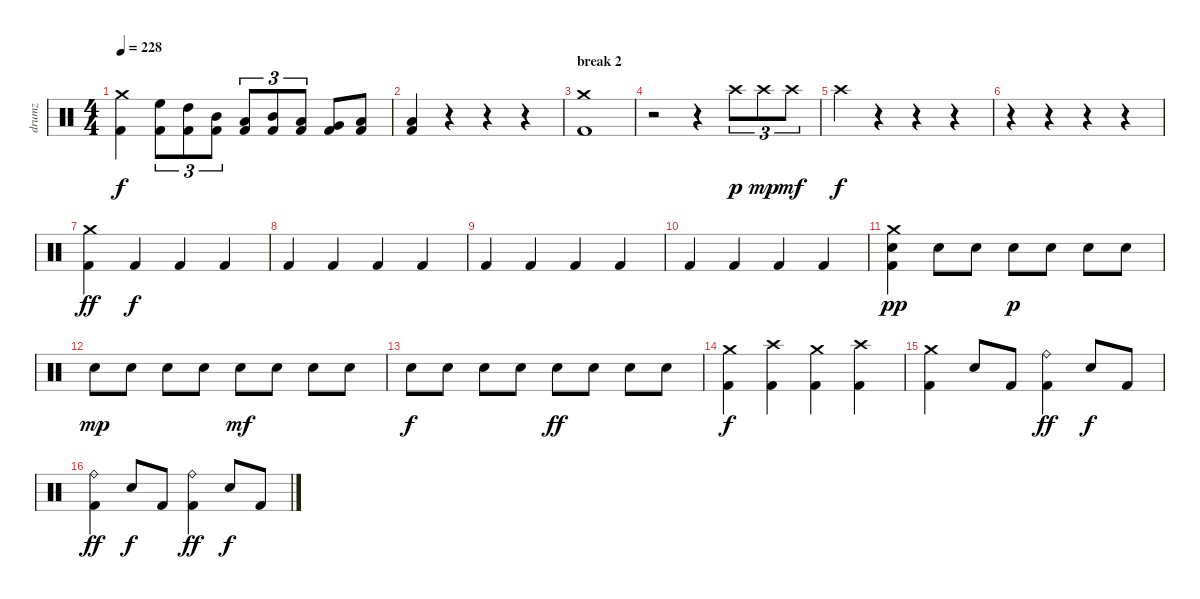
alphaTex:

\track ("drumz" "drumz") {instrument percussion}
\staff {score}
\articulation defaults
\ts (4 4)
\tempo 228
\clef neutral
\ks c
("Crash medium (hit)" "Kick (hit) 2").4{dy f} ("High Floor Tom (hit)" "Kick (hit) 2").8{tu (3 2)} ("High Tom (hit)" "Kick (hit) 2").8{tu (3 2)} ("Mid Tom (hit)" "Kick (hit) 2").8{tu (3 2)} ("Low Tom (hit)" "Kick (hit) 2").8{tu (3 2)} ("Mid Tom (hit)" "Kick (hit) 2").8{tu (3 2)} ("Low Tom (hit)" "Kick (hit) 2").8{tu (3 2)} ("Very Low Tom (hit)" "Kick (hit) 2").8 ("Low Floor Tom (hit)" "Kick (hit) 2").8 |
("Low Floor Tom (hit)" "Kick (hit) 2").4 r.4 r.4 r.4 |
\section ("" "break 2")
("Crash medium (hit)" "Kick (hit) 2").1 |
r.2 r.4 "Crash high (hit)".8{tu (3 2) dy p} "Crash high (hit)".8{tu (3 2) dy mp} "Crash high (hit)".8{tu (3 2) dy mf} |
"Crash high (hit)".4{dy f} r.4 r.4 r.4 |
r.4 r.4 r.4 r.4 |
("Crash medium (hit)" "Kick (hit) 2").4{dy ff} "Kick (hit) 2".4{dy f} "Kick (hit) 2".4 "Kick (hit) 2".4 |
"Kick (hit) 2".4 "Kick (hit) 2".4 "Kick (hit) 2".4 "Kick (hit) 2".4 |
"Kick (hit) 2".4 "Kick (hit) 2".4 "Kick (hit) 2".4 "Kick (hit) 2".4 |
"Kick (hit) 2".4 "Kick (hit) 2".4 "Kick (hit) 2".4 "Kick (hit) 2".4 |
("Crash medium (hit)" "Snare (hit) 2" "Kick (hit) 2").4{dy pp} "Snare (hit) 2".8 "Snare (hit) 2".8 "Snare (hit) 2".8{dy p} "Snare (hit) 2".8 "Snare (hit) 2".8 "Snare (hit) 2".8 |
"Snare (hit) 2".8{dy mp} "Snare (hit) 2".8 "Snare (hit) 2".8 "Snare (hit) 2".8 "Snare (hit) 2".8{dy mf} "Snare (hit) 2".8 "Snare (hit) 2".8 "Snare (hit) 2".8 |
"Snare (hit) 2".8{dy f} "Snare (hit) 2".8 "Snare (hit) 2".8 "Snare (hit) 2".8 "Snare (hit) 2".8{dy ff} "Snare (hit) 2".8 "Snare (hit) 2".8 "Snare (hit) 2".8 |
("Crash medium (hit)" "Kick (hit) 2").4{dy f} ("Crash high (hit)" "Kick (hit) 2").4 ("Crash medium (hit)" "Kick (hit) 2").4 ("Crash high (hit)" "Kick (hit) 2").4 |
("Crash medium (hit)" "Kick (hit) 2").4 "Snare (hit) 2".8 "Kick (hit) 2".8 ("Ride (bell)" "Kick (hit) 2").4{dy ff} "Snare (hit) 2".8{dy f} "Kick (hit) 2".8 |
("Ride (bell)" "Kick (hit) 2").4{dy ff} "Snare (hit) 2".8{dy f} "Kick (hit) 2".8 ("Ride (bell)" "Kick (hit) 2").4{dy ff} "Snare (hit) 2".8{dy f} "Kick (hit) 2".8
